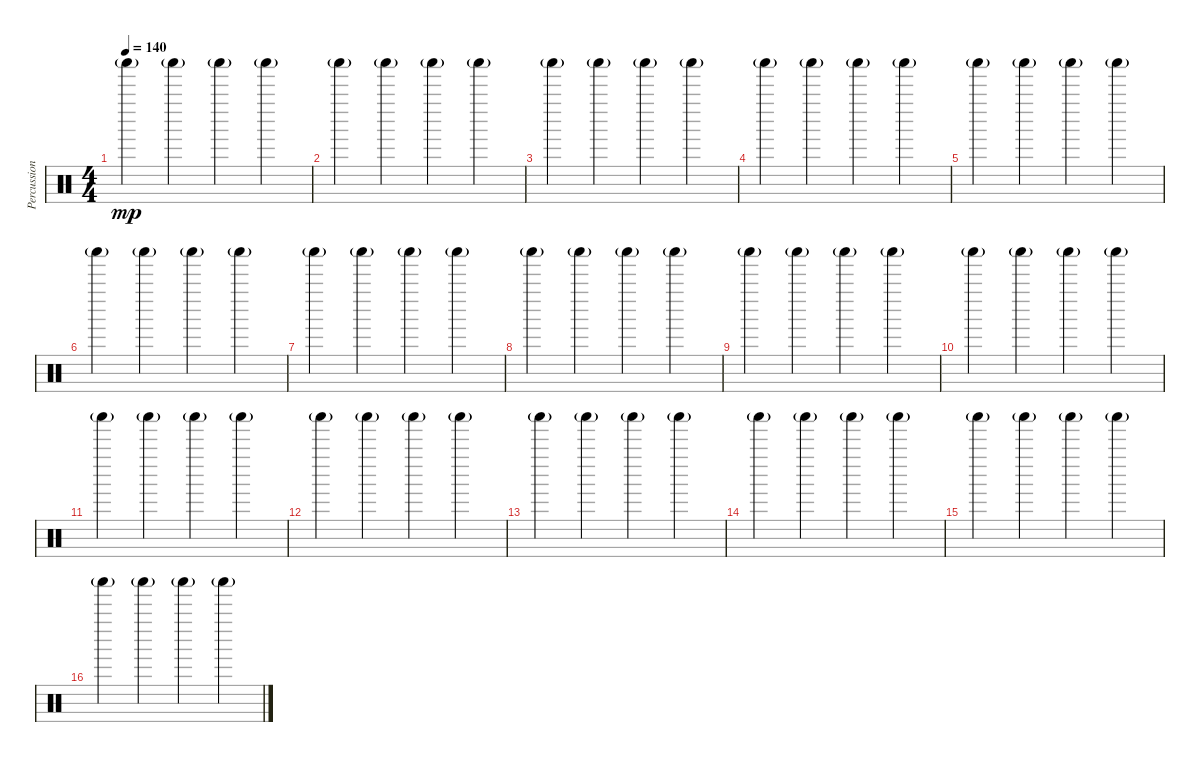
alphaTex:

\track ("Percussion" "Percussion") {instrument percussion}
\staff {score}
\articulation defaults
\ts (4 4)
\tempo 140
\clef neutral
\ks c "Shaker (hit)"{g}.4{dy mp} "Shaker (hit)"{g}.4 "Shaker (hit)"{g}.4 "Shaker (hit)"{g}.4
|
"Shaker (hit)"{g}.4 "Shaker (hit)"{g}.4 "Shaker (hit)"{g}.4 "Shaker (hit)"{g}.4 |
"Shaker (hit)"{g}.4 "Shaker (hit)"{g}.4 "Shaker (hit)"{g}.4 "Shaker (hit)"{g}.4 |
"Shaker (hit)"{g}.4 "Shaker (hit)"{g}.4 "Shaker (hit)"{g}.4 "Shaker (hit)"{g}.4 |
"Shaker (hit)"{g}.4 "Shaker (hit)"{g}.4 "Shaker (hit)"{g}.4 "Shaker (hit)"{g}.4 |
"Shaker (hit)"{g}.4 "Shaker (hit)"{g}.4 "Shaker (hit)"{g}.4 "Shaker (hit)"{g}.4 |
"Shaker (hit)"{g}.4 "Shaker (hit)"{g}.4 "Shaker (hit)"{g}.4 "Shaker (hit)"{g}.4 |
"Shaker (hit)"{g}.4 "Shaker (hit)"{g}.4 "Shaker (hit)"{g}.4 "Shaker (hit)"{g}.4 |
"Shaker (hit)"{g}.4 "Shaker (hit)"{g}.4 "Shaker (hit)"{g}.4 "Shaker (hit)"{g}.4 |
"Shaker (hit)"{g}.4 "Shaker (hit)"{g}.4 "Shaker (hit)"{g}.4 "Shaker (hit)"{g}.4 |
"Shaker (hit)"{g}.4 "Shaker (hit)"{g}.4 "Shaker (hit)"{g}.4 "Shaker (hit)"{g}.4 |
"Shaker (hit)"{g}.4 "Shaker (hit)"{g}.4 "Shaker (hit)"{g}.4 "Shaker (hit)"{g}.4 |
"Shaker (hit)"{g}.4 "Shaker (hit)"{g}.4 "Shaker (hit)"{g}.4 "Shaker (hit)"{g}.4 |
"Shaker (hit)"{g}.4 "Shaker (hit)"{g}.4 "Shaker (hit)"{g}.4 "Shaker (hit)"{g}.4 |
"Shaker (hit)"{g}.4 "Shaker (hit)"{g}.4 "Shaker (hit)"{g}.4 "Shaker (hit)"{g}.4 |
"Shaker (hit)"{g}.4 "Shaker (hit)"{g}.4 "Shaker (hit)"{g}.4 "Shaker (hit)"{g}.4
